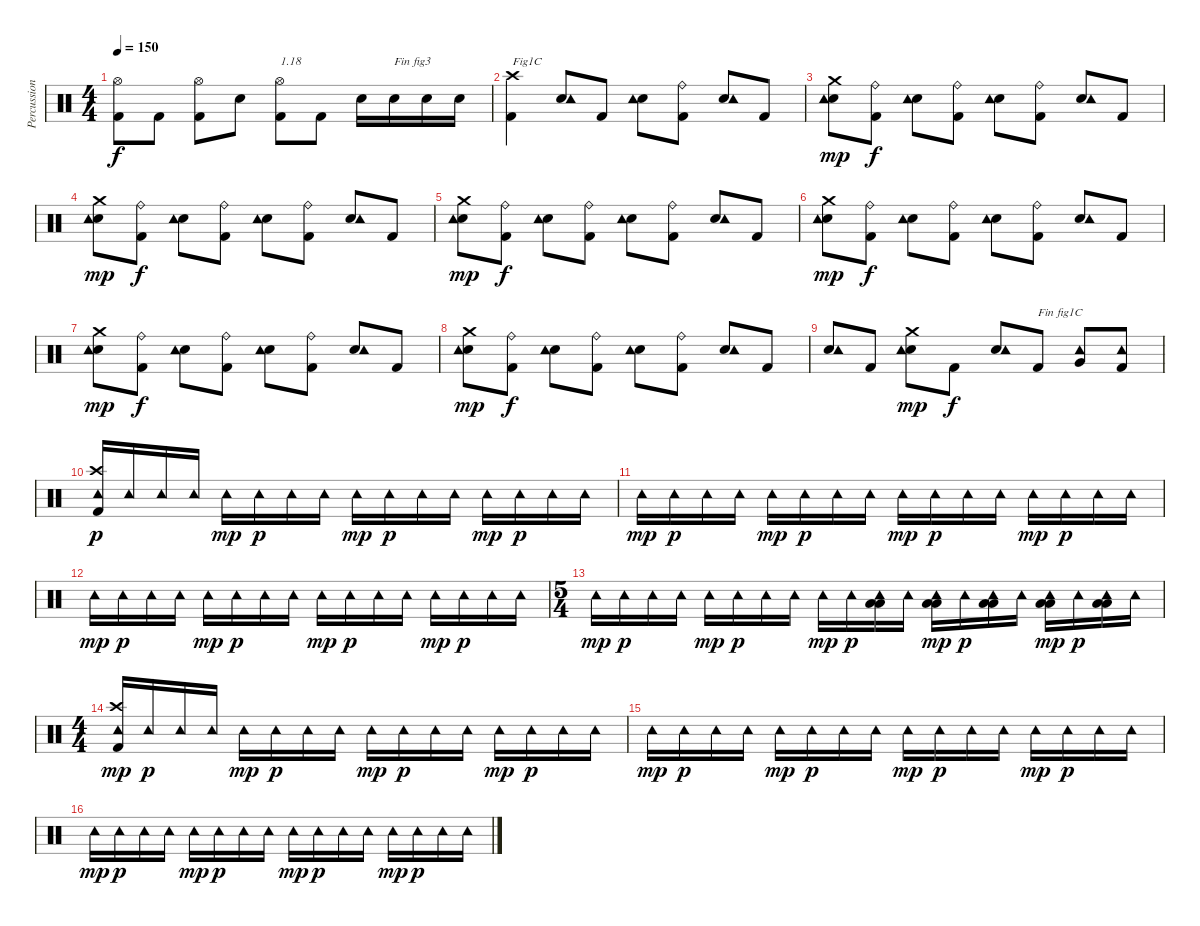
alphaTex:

\track ("Percussions" "Percussion") {instrument percussion}
\staff {score}
\articulation defaults
\ts (4 4)
\tempo 150
\clef neutral
\ks c
("Kick (hit) 2" "Hi-Hat (open)").8{dy f} "Kick (hit) 2".8 ("Kick (hit) 2" "Hi-Hat (open)").8 "Electric Snare (hit)".8 ("Kick (hit) 2" "Hi-Hat (open)").8{txt "1.18"} "Kick (hit) 2".8 "Electric Snare (hit)".16 "Electric Snare (hit)".16{txt "Fin fig3"} "Electric Snare (hit)".16 "Electric Snare (hit)".16 |
("Kick (hit) 2" "Crash high (hit)").4{txt "Fig1C"} ("Electric Snare (hit)" "Tambourine (hit)").8 "Kick (hit) 2".8 ("Electric Snare (hit)" "Tambourine (hit)").8 ("Kick (hit) 2" "Ride (bell)").8 ("Electric Snare (hit)" "Tambourine (hit)").8 "Kick (hit) 2".8 |
("Electric Snare (hit)" "Crash medium (hit)" "Tambourine (hit)").8{dy mp} ("Kick (hit) 2" "Ride (bell)").8{dy f} ("Electric Snare (hit)" "Tambourine (hit)").8 ("Kick (hit) 2" "Ride (bell)").8 ("Electric Snare (hit)" "Tambourine (hit)").8 ("Kick (hit) 2" "Ride (bell)").8 ("Electric Snare (hit)" "Tambourine (hit)").8 "Kick (hit) 2".8 |
("Electric Snare (hit)" "Crash medium (hit)" "Tambourine (hit)").8{dy mp} ("Kick (hit) 2" "Ride (bell)").8{dy f} ("Electric Snare (hit)" "Tambourine (hit)").8 ("Kick (hit) 2" "Ride (bell)").8 ("Electric Snare (hit)" "Tambourine (hit)").8 ("Kick (hit) 2" "Ride (bell)").8 ("Electric Snare (hit)" "Tambourine (hit)").8 "Kick (hit) 2".8 |
("Electric Snare (hit)" "Crash medium (hit)" "Tambourine (hit)").8{dy mp} ("Kick (hit) 2" "Ride (bell)").8{dy f} ("Electric Snare (hit)" "Tambourine (hit)").8 ("Kick (hit) 2" "Ride (bell)").8 ("Electric Snare (hit)" "Tambourine (hit)").8 ("Kick (hit) 2" "Ride (bell)").8 ("Electric Snare (hit)" "Tambourine (hit)").8 "Kick (hit) 2".8 |
("Electric Snare (hit)" "Crash medium (hit)" "Tambourine (hit)").8{dy mp} ("Kick (hit) 2" "Ride (bell)").8{dy f} ("Electric Snare (hit)" "Tambourine (hit)").8 ("Kick (hit) 2" "Ride (bell)").8 ("Electric Snare (hit)" "Tambourine (hit)").8 ("Kick (hit) 2" "Ride (bell)").8 ("Electric Snare (hit)" "Tambourine (hit)").8 "Kick (hit) 2".8 |
("Electric Snare (hit)" "Crash medium (hit)" "Tambourine (hit)").8{dy mp} ("Kick (hit) 2" "Ride (bell)").8{dy f} ("Electric Snare (hit)" "Tambourine (hit)").8 ("Kick (hit) 2" "Ride (bell)").8 ("Electric Snare (hit)" "Tambourine (hit)").8 ("Kick (hit) 2" "Ride (bell)").8 ("Electric Snare (hit)" "Tambourine (hit)").8 "Kick (hit) 2".8 |
("Electric Snare (hit)" "Crash medium (hit)" "Tambourine (hit)").8{dy mp} ("Kick (hit) 2" "Ride (bell)").8{dy f} ("Electric Snare (hit)" "Tambourine (hit)").8 ("Kick (hit) 2" "Ride (bell)").8 ("Electric Snare (hit)" "Tambourine (hit)").8 ("Kick (hit) 2" "Ride (bell)").8 ("Electric Snare (hit)" "Tambourine (hit)").8 "Kick (hit) 2".8 |
("Electric Snare (hit)" "Tambourine (hit)").8 "Kick (hit) 2".8 ("Electric Snare (hit)" "Crash medium (hit)" "Tambourine (hit)").8{dy mp} "Kick (hit) 2".8{dy f} ("Electric Snare (hit)" "Tambourine (hit)").8 "Kick (hit) 2".8{txt "Fin fig1C"} ("Very Low Tom (hit)" "Tambourine (hit)").8 ("Kick (hit) 2" "Tambourine (hit)").8 |
("Kick (hit) 2" "Crash high (hit)" "Tambourine (hit)").16{dy p} "Tambourine (hit)".16 "Tambourine (hit)".16 "Tambourine (hit)".16 "Tambourine (hit)".16{dy mp} "Tambourine (hit)".16{dy p} "Tambourine (hit)".16 "Tambourine (hit)".16 "Tambourine (hit)".16{dy mp} "Tambourine (hit)".16{dy p} "Tambourine (hit)".16 "Tambourine (hit)".16 "Tambourine (hit)".16{dy mp} "Tambourine (hit)".16{dy p} "Tambourine (hit)".16 "Tambourine (hit)".16 |
"Tambourine (hit)".16{dy mp} "Tambourine (hit)".16{dy p} "Tambourine (hit)".16 "Tambourine (hit)".16 "Tambourine (hit)".16{dy mp} "Tambourine (hit)".16{dy p} "Tambourine (hit)".16 "Tambourine (hit)".16 "Tambourine (hit)".16{dy mp} "Tambourine (hit)".16{dy p} "Tambourine (hit)".16 "Tambourine (hit)".16 "Tambourine (hit)".16{dy mp} "Tambourine (hit)".16{dy p} "Tambourine (hit)".16 "Tambourine (hit)".16 |
"Tambourine (hit)".16{dy mp} "Tambourine (hit)".16{dy p} "Tambourine (hit)".16 "Tambourine (hit)".16 "Tambourine (hit)".16{dy mp} "Tambourine (hit)".16{dy p} "Tambourine (hit)".16 "Tambourine (hit)".16 "Tambourine (hit)".16{dy mp} "Tambourine (hit)".16{dy p} "Tambourine (hit)".16 "Tambourine (hit)".16 "Tambourine (hit)".16{dy mp} "Tambourine (hit)".16{dy p} "Tambourine (hit)".16 "Tambourine (hit)".16 |
\ts (5 4)
"Tambourine (hit)".16{dy mp} "Tambourine (hit)".16{dy p} "Tambourine (hit)".16 "Tambourine (hit)".16 "Tambourine (hit)".16{dy mp} "Tambourine (hit)".16{dy p} "Tambourine (hit)".16 "Tambourine (hit)".16 "Tambourine (hit)".16{dy mp} "Tambourine (hit)".16{dy p} ("Low Tom (hit)" "Low Floor Tom (hit)" "Tambourine (hit)").16 "Tambourine (hit)".16 ("Low Tom (hit)" "Low Floor Tom (hit)" "Tambourine (hit)").16{dy mp} "Tambourine (hit)".16{dy p} ("Low Tom (hit)" "Low Floor Tom (hit)" "Tambourine (hit)").16 "Tambourine (hit)".16 ("Low Tom (hit)" "Low Floor Tom (hit)" "Tambourine (hit)").16{dy mp} "Tambourine (hit)".16{dy p} ("Low Tom (hit)" "Low Floor Tom (hit)" "Tambourine (hit)").16 "Tambourine (hit)".16 |
\ts (4 4)
("Kick (hit) 2" "Crash high (hit)" "Tambourine (hit)").16{dy mp} "Tambourine (hit)".16{dy p} "Tambourine (hit)".16 "Tambourine (hit)".16 "Tambourine (hit)".16{dy mp} "Tambourine (hit)".16{dy p} "Tambourine (hit)".16 "Tambourine (hit)".16 "Tambourine (hit)".16{dy mp} "Tambourine (hit)".16{dy p} "Tambourine (hit)".16 "Tambourine (hit)".16 "Tambourine (hit)".16{dy mp} "Tambourine (hit)".16{dy p} "Tambourine (hit)".16 "Tambourine (hit)".16 |
"Tambourine (hit)".16{dy mp} "Tambourine (hit)".16{dy p} "Tambourine (hit)".16 "Tambourine (hit)".16 "Tambourine (hit)".16{dy mp} "Tambourine (hit)".16{dy p} "Tambourine (hit)".16 "Tambourine (hit)".16 "Tambourine (hit)".16{dy mp} "Tambourine (hit)".16{dy p} "Tambourine (hit)".16 "Tambourine (hit)".16 "Tambourine (hit)".16{dy mp} "Tambourine (hit)".16{dy p} "Tambourine (hit)".16 "Tambourine (hit)".16 |
"Tambourine (hit)".16{dy mp} "Tambourine (hit)".16{dy p} "Tambourine (hit)".16 "Tambourine (hit)".16 "Tambourine (hit)".16{dy mp} "Tambourine (hit)".16{dy p} "Tambourine (hit)".16 "Tambourine (hit)".16 "Tambourine (hit)".16{dy mp} "Tambourine (hit)".16{dy p} "Tambourine (hit)".16 "Tambourine (hit)".16 "Tambourine (hit)".16{dy mp} "Tambourine (hit)".16{dy p} "Tambourine (hit)".16 "Tambourine (hit)".16
